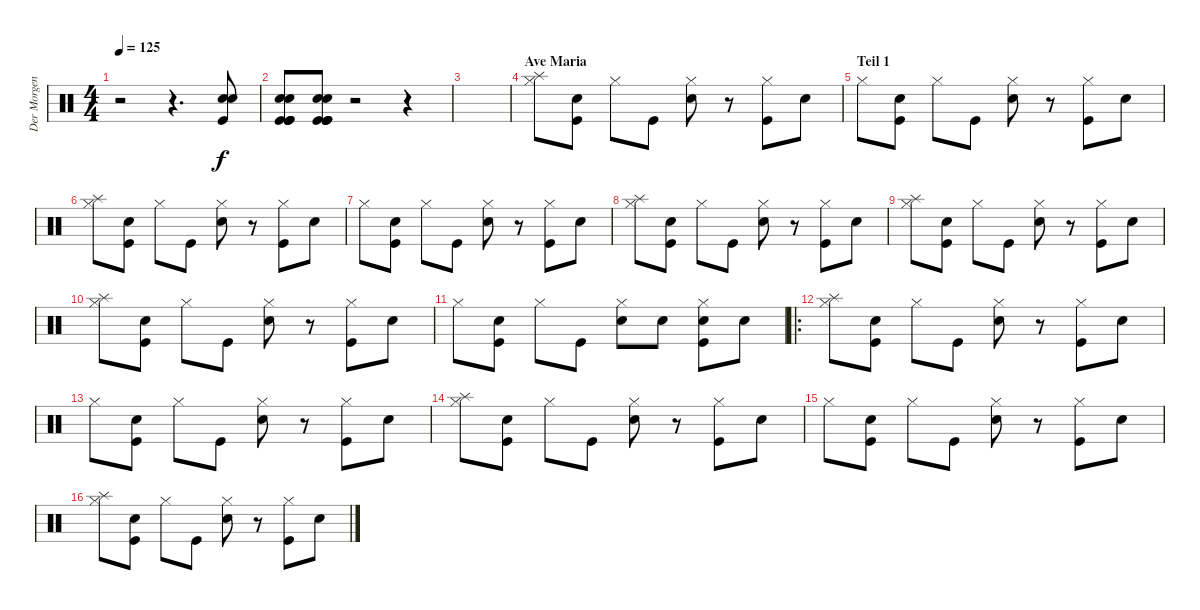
\track ("Der Morgenstern" "Der Morgen") {instrument percussion}
\staff {score}
\articulation defaults
\ts (4 4)
\tempo 125
\clef neutral
\ks c
r.2{dy f} r.4{d} ("Snare (hit) 2" "Snare (hit) 2" "Kick (hit)").8 |
("Snare (hit) 2" "Snare (hit) 2" "Kick (hit)" "Kick (hit)" "Kick (hit)" "Kick (hit)").8 ("Snare (hit) 2" "Snare (hit) 2" "Kick (hit)" "Kick (hit)" "Kick (hit)" "Kick (hit)").8 r.2 r.4 |
|
\section ("" "Ave Maria")
("Hi-Hat (closed)" "Splash (hit)").8 ("Snare (hit) 2" "Kick (hit)").8 "Hi-Hat (closed)".8 "Kick (hit)".8 ("Hi-Hat (closed)" "Snare (hit) 2").8 r.8 ("Hi-Hat (closed)" "Kick (hit)").8 "Snare (hit) 2".8 |
\section ("" "Teil 1")
"Hi-Hat (closed)".8 ("Snare (hit) 2" "Kick (hit)").8 "Hi-Hat (closed)".8 "Kick (hit)".8 ("Hi-Hat (closed)" "Snare (hit) 2").8 r.8 ("Hi-Hat (closed)" "Kick (hit)").8 "Snare (hit) 2".8 |
("Hi-Hat (closed)" "Splash (hit)").8 ("Snare (hit) 2" "Kick (hit)").8 "Hi-Hat (closed)".8 "Kick (hit)".8 ("Hi-Hat (closed)" "Snare (hit) 2").8 r.8 ("Hi-Hat (closed)" "Kick (hit)").8 "Snare (hit) 2".8 |
"Hi-Hat (closed)".8 ("Snare (hit) 2" "Kick (hit)").8 "Hi-Hat (closed)".8 "Kick (hit)".8 ("Hi-Hat (closed)" "Snare (hit) 2").8 r.8 ("Hi-Hat (closed)" "Kick (hit)").8 "Snare (hit) 2".8 |
("Hi-Hat (closed)" "Splash (hit)").8 ("Snare (hit) 2" "Kick (hit)").8 "Hi-Hat (closed)".8 "Kick (hit)".8 ("Hi-Hat (closed)" "Snare (hit) 2").8 r.8 ("Hi-Hat (closed)" "Kick (hit)").8 "Snare (hit) 2".8 |
("Hi-Hat (closed)" "Splash (hit)").8 ("Snare (hit) 2" "Kick (hit)").8 "Hi-Hat (closed)".8 "Kick (hit)".8 ("Hi-Hat (closed)" "Snare (hit) 2").8 r.8 ("Hi-Hat (closed)" "Kick (hit)").8 "Snare (hit) 2".8 |
("Hi-Hat (closed)" "Splash (hit)").8 ("Snare (hit) 2" "Kick (hit)").8 "Hi-Hat (closed)".8 "Kick (hit)".8 ("Hi-Hat (closed)" "Snare (hit) 2").8 r.8 ("Hi-Hat (closed)" "Kick (hit)").8 "Snare (hit) 2".8 |
"Hi-Hat (closed)".8 ("Snare (hit) 2" "Kick (hit)").8 "Hi-Hat (closed)".8 "Kick (hit)".8 ("Hi-Hat (closed)" "Snare (hit) 2").8 "Snare (hit) 2".8 ("Hi-Hat (closed)" "Snare (hit) 2" "Kick (hit)").8 "Snare (hit) 2".8 |
\ro
("Hi-Hat (closed)" "Splash (hit)").8 ("Snare (hit) 2" "Kick (hit)").8 "Hi-Hat (closed)".8 "Kick (hit)".8 ("Hi-Hat (closed)" "Snare (hit) 2").8 r.8 ("Hi-Hat (closed)" "Kick (hit)").8 "Snare (hit) 2".8 |
"Hi-Hat (closed)".8 ("Snare (hit) 2" "Kick (hit)").8 "Hi-Hat (closed)".8 "Kick (hit)".8 ("Hi-Hat (closed)" "Snare (hit) 2").8 r.8 ("Hi-Hat (closed)" "Kick (hit)").8 "Snare (hit) 2".8 |
("Hi-Hat (closed)" "Splash (hit)").8 ("Snare (hit) 2" "Kick (hit)").8 "Hi-Hat (closed)".8 "Kick (hit)".8 ("Hi-Hat (closed)" "Snare (hit) 2").8 r.8 ("Hi-Hat (closed)" "Kick (hit)").8 "Snare (hit) 2".8 |
"Hi-Hat (closed)".8 ("Snare (hit) 2" "Kick (hit)").8 "Hi-Hat (closed)".8 "Kick (hit)".8 ("Hi-Hat (closed)" "Snare (hit) 2").8 r.8 ("Hi-Hat (closed)" "Kick (hit)").8 "Snare (hit) 2".8 |
("Hi-Hat (closed)" "Splash (hit)").8 ("Snare (hit) 2" "Kick (hit)").8 "Hi-Hat (closed)".8 "Kick (hit)".8 ("Hi-Hat (closed)" "Snare (hit) 2").8 r.8 ("Hi-Hat (closed)" "Kick (hit)").8 "Snare (hit) 2".8
